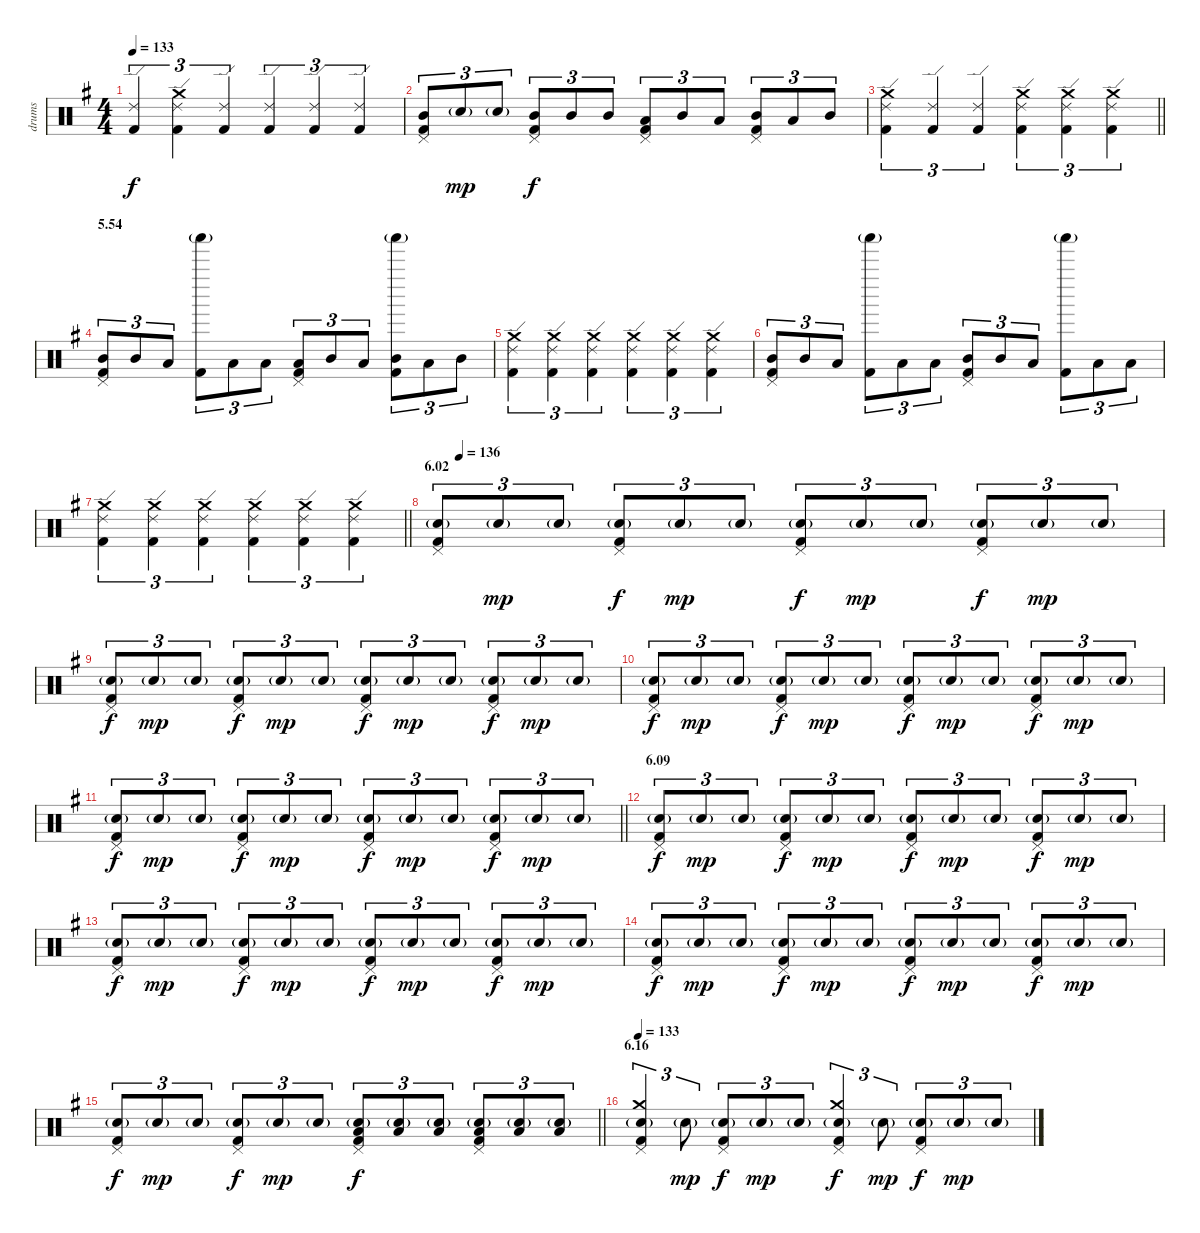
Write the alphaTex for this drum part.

\track ("drums" "drums") {instrument percussion}
\staff {score}
\articulation defaults
\ts (4 4)
\tempo 133
\clef neutral
\ks g
("Ride (edge) 2" "Kick (hit) 2").4{tu (3 2) dy f} ("Ride (edge) 2" "Crash medium (hit)" "Kick (hit) 2").4{tu (3 2)} ("Ride (edge) 2" "Kick (hit) 2").4{tu (3 2)} ("Ride (edge) 2" "Kick (hit) 2").4{tu (3 2)} ("Ride (edge) 2" "Kick (hit) 2").4{tu (3 2)} ("Ride (edge) 2" "Kick (hit) 2").4{tu (3 2)} |
("Pedal Hi-Hat (hit)" "Mid Tom (hit)" "Kick (hit) 2").8{tu (3 2)} "Electric Snare (hit)"{g}.8{tu (3 2) dy mp} "Electric Snare (hit)"{g}.8{tu (3 2)} ("Pedal Hi-Hat (hit)" "Mid Tom (hit)" "Kick (hit) 2").8{tu (3 2) dy f} "Mid Tom (hit)".8{tu (3 2)} "Mid Tom (hit)".8{tu (3 2)} ("Pedal Hi-Hat (hit)" "Low Tom (hit)" "Kick (hit) 2").8{tu (3 2)} "Mid Tom (hit)".8{tu (3 2)} "Low Tom (hit)".8{tu (3 2)} ("Pedal Hi-Hat (hit)" "Mid Tom (hit)" "Kick (hit) 2").8{tu (3 2)} "Low Tom (hit)".8{tu (3 2)} "Mid Tom (hit)".8{tu (3 2)} |
\barLineRight lightlight
("Ride (edge) 2" "Crash medium (hit)" "Kick (hit) 2").4{tu (3 2)} ("Ride (edge) 2" "Kick (hit) 2").4{tu (3 2)} ("Ride (edge) 2" "Kick (hit) 2").4{tu (3 2)} ("Ride (edge) 2" "Crash medium (hit)" "Kick (hit) 2").4{tu (3 2)} ("Ride (edge) 2" "Crash medium (hit)" "Kick (hit) 2").4{tu (3 2)} ("Ride (edge) 2" "Crash medium (hit)" "Kick (hit) 2").4{tu (3 2)} |
\section ("" "5.54")
("Pedal Hi-Hat (hit)" "Mid Tom (hit)" "Kick (hit) 2").8{tu (3 2)} "Mid Tom (hit)".8{tu (3 2)} "Low Tom (hit)".8{tu (3 2)} ("Shaker (hit)"{g} "Kick (hit) 2").8{tu (3 2)} "Low Tom (hit)".8{tu (3 2)} "Low Tom (hit)".8{tu (3 2)} ("Pedal Hi-Hat (hit)" "Low Tom (hit)" "Kick (hit) 2").8{tu (3 2)} "Mid Tom (hit)".8{tu (3 2)} "Low Tom (hit)".8{tu (3 2)} ("Shaker (hit)"{g} "Mid Tom (hit)" "Kick (hit) 2").8{tu (3 2)} "Low Tom (hit)".8{tu (3 2)} "Mid Tom (hit)".8{tu (3 2)} |
("Ride (edge) 2" "Crash medium (hit)" "Kick (hit) 2").4{tu (3 2)} ("Ride (edge) 2" "Crash medium (hit)" "Kick (hit) 2").4{tu (3 2)} ("Ride (edge) 2" "Crash medium (hit)" "Kick (hit) 2").4{tu (3 2)} ("Ride (edge) 2" "Crash medium (hit)" "Kick (hit) 2").4{tu (3 2)} ("Ride (edge) 2" "Crash medium (hit)" "Kick (hit) 2").4{tu (3 2)} ("Ride (edge) 2" "Crash medium (hit)" "Kick (hit) 2").4{tu (3 2)} |
("Pedal Hi-Hat (hit)" "Mid Tom (hit)" "Kick (hit) 2").8{tu (3 2)} "Mid Tom (hit)".8{tu (3 2)} "Low Tom (hit)".8{tu (3 2)} ("Shaker (hit)"{g} "Kick (hit) 2").8{tu (3 2)} "Low Tom (hit)".8{tu (3 2)} "Low Tom (hit)".8{tu (3 2)} ("Pedal Hi-Hat (hit)" "Mid Tom (hit)" "Kick (hit) 2").8{tu (3 2)} "Mid Tom (hit)".8{tu (3 2)} "Low Tom (hit)".8{tu (3 2)} ("Shaker (hit)"{g} "Kick (hit) 2").8{tu (3 2)} "Low Tom (hit)".8{tu (3 2)} "Low Tom (hit)".8{tu (3 2)} |
\barLineRight lightlight
("Ride (edge) 2" "Crash medium (hit)" "Kick (hit) 2").4{tu (3 2)} ("Ride (edge) 2" "Crash medium (hit)" "Kick (hit) 2").4{tu (3 2)} ("Ride (edge) 2" "Crash medium (hit)" "Kick (hit) 2").4{tu (3 2)} ("Ride (edge) 2" "Crash medium (hit)" "Kick (hit) 2").4{tu (3 2)} ("Ride (edge) 2" "Crash medium (hit)" "Kick (hit) 2").4{tu (3 2)} ("Ride (edge) 2" "Crash medium (hit)" "Kick (hit) 2").4{tu (3 2)} |
\section ("" "6.02")
\tempo (136 0.03125)
("Pedal Hi-Hat (hit)" "Electric Snare (hit)"{g} "Kick (hit) 2").8{tu (3 2)} "Electric Snare (hit)"{g}.8{tu (3 2) dy mp} "Electric Snare (hit)"{g}.8{tu (3 2)} ("Pedal Hi-Hat (hit)" "Electric Snare (hit)"{g} "Kick (hit) 2").8{tu (3 2) dy f} "Electric Snare (hit)"{g}.8{tu (3 2) dy mp} "Electric Snare (hit)"{g}.8{tu (3 2)} ("Pedal Hi-Hat (hit)" "Electric Snare (hit)"{g} "Kick (hit) 2").8{tu (3 2) dy f} "Electric Snare (hit)"{g}.8{tu (3 2) dy mp} "Electric Snare (hit)"{g}.8{tu (3 2)} ("Pedal Hi-Hat (hit)" "Electric Snare (hit)"{g} "Kick (hit) 2").8{tu (3 2) dy f} "Electric Snare (hit)"{g}.8{tu (3 2) dy mp} "Electric Snare (hit)"{g}.8{tu (3 2)} |
("Pedal Hi-Hat (hit)" "Electric Snare (hit)"{g} "Kick (hit) 2").8{tu (3 2) dy f} "Electric Snare (hit)"{g}.8{tu (3 2) dy mp} "Electric Snare (hit)"{g}.8{tu (3 2)} ("Pedal Hi-Hat (hit)" "Electric Snare (hit)"{g} "Kick (hit) 2").8{tu (3 2) dy f} "Electric Snare (hit)"{g}.8{tu (3 2) dy mp} "Electric Snare (hit)"{g}.8{tu (3 2)} ("Pedal Hi-Hat (hit)" "Electric Snare (hit)"{g} "Kick (hit) 2").8{tu (3 2) dy f} "Electric Snare (hit)"{g}.8{tu (3 2) dy mp} "Electric Snare (hit)"{g}.8{tu (3 2)} ("Pedal Hi-Hat (hit)" "Electric Snare (hit)"{g} "Kick (hit) 2").8{tu (3 2) dy f} "Electric Snare (hit)"{g}.8{tu (3 2) dy mp} "Electric Snare (hit)"{g}.8{tu (3 2)} |
("Pedal Hi-Hat (hit)" "Electric Snare (hit)"{g} "Kick (hit) 2").8{tu (3 2) dy f} "Electric Snare (hit)"{g}.8{tu (3 2) dy mp} "Electric Snare (hit)"{g}.8{tu (3 2)} ("Pedal Hi-Hat (hit)" "Electric Snare (hit)"{g} "Kick (hit) 2").8{tu (3 2) dy f} "Electric Snare (hit)"{g}.8{tu (3 2) dy mp} "Electric Snare (hit)"{g}.8{tu (3 2)} ("Pedal Hi-Hat (hit)" "Electric Snare (hit)"{g} "Kick (hit) 2").8{tu (3 2) dy f} "Electric Snare (hit)"{g}.8{tu (3 2) dy mp} "Electric Snare (hit)"{g}.8{tu (3 2)} ("Pedal Hi-Hat (hit)" "Electric Snare (hit)"{g} "Kick (hit) 2").8{tu (3 2) dy f} "Electric Snare (hit)"{g}.8{tu (3 2) dy mp} "Electric Snare (hit)"{g}.8{tu (3 2)} |
\barLineRight lightlight
("Pedal Hi-Hat (hit)" "Electric Snare (hit)"{g} "Kick (hit) 2").8{tu (3 2) dy f} "Electric Snare (hit)"{g}.8{tu (3 2) dy mp} "Electric Snare (hit)"{g}.8{tu (3 2)} ("Pedal Hi-Hat (hit)" "Electric Snare (hit)"{g} "Kick (hit) 2").8{tu (3 2) dy f} "Electric Snare (hit)"{g}.8{tu (3 2) dy mp} "Electric Snare (hit)"{g}.8{tu (3 2)} ("Pedal Hi-Hat (hit)" "Electric Snare (hit)"{g} "Kick (hit) 2").8{tu (3 2) dy f} "Electric Snare (hit)"{g}.8{tu (3 2) dy mp} "Electric Snare (hit)"{g}.8{tu (3 2)} ("Pedal Hi-Hat (hit)" "Electric Snare (hit)"{g} "Kick (hit) 2").8{tu (3 2) dy f} "Electric Snare (hit)"{g}.8{tu (3 2) dy mp} "Electric Snare (hit)"{g}.8{tu (3 2)} |
\section ("" "6.09")
("Pedal Hi-Hat (hit)" "Electric Snare (hit)"{g} "Kick (hit) 2").8{tu (3 2) dy f} "Electric Snare (hit)"{g}.8{tu (3 2) dy mp} "Electric Snare (hit)"{g}.8{tu (3 2)} ("Pedal Hi-Hat (hit)" "Electric Snare (hit)"{g} "Kick (hit) 2").8{tu (3 2) dy f} "Electric Snare (hit)"{g}.8{tu (3 2) dy mp} "Electric Snare (hit)"{g}.8{tu (3 2)} ("Pedal Hi-Hat (hit)" "Electric Snare (hit)"{g} "Kick (hit) 2").8{tu (3 2) dy f} "Electric Snare (hit)"{g}.8{tu (3 2) dy mp} "Electric Snare (hit)"{g}.8{tu (3 2)} ("Pedal Hi-Hat (hit)" "Electric Snare (hit)"{g} "Kick (hit) 2").8{tu (3 2) dy f} "Electric Snare (hit)"{g}.8{tu (3 2) dy mp} "Electric Snare (hit)"{g}.8{tu (3 2)} |
("Pedal Hi-Hat (hit)" "Electric Snare (hit)"{g} "Kick (hit) 2").8{tu (3 2) dy f} "Electric Snare (hit)"{g}.8{tu (3 2) dy mp} "Electric Snare (hit)"{g}.8{tu (3 2)} ("Pedal Hi-Hat (hit)" "Electric Snare (hit)"{g} "Kick (hit) 2").8{tu (3 2) dy f} "Electric Snare (hit)"{g}.8{tu (3 2) dy mp} "Electric Snare (hit)"{g}.8{tu (3 2)} ("Pedal Hi-Hat (hit)" "Electric Snare (hit)"{g} "Kick (hit) 2").8{tu (3 2) dy f} "Electric Snare (hit)"{g}.8{tu (3 2) dy mp} "Electric Snare (hit)"{g}.8{tu (3 2)} ("Pedal Hi-Hat (hit)" "Electric Snare (hit)"{g} "Kick (hit) 2").8{tu (3 2) dy f} "Electric Snare (hit)"{g}.8{tu (3 2) dy mp} "Electric Snare (hit)"{g}.8{tu (3 2)} |
("Pedal Hi-Hat (hit)" "Electric Snare (hit)"{g} "Kick (hit) 2").8{tu (3 2) dy f} "Electric Snare (hit)"{g}.8{tu (3 2) dy mp} "Electric Snare (hit)"{g}.8{tu (3 2)} ("Pedal Hi-Hat (hit)" "Electric Snare (hit)"{g} "Kick (hit) 2").8{tu (3 2) dy f} "Electric Snare (hit)"{g}.8{tu (3 2) dy mp} "Electric Snare (hit)"{g}.8{tu (3 2)} ("Pedal Hi-Hat (hit)" "Electric Snare (hit)"{g} "Kick (hit) 2").8{tu (3 2) dy f} "Electric Snare (hit)"{g}.8{tu (3 2) dy mp} "Electric Snare (hit)"{g}.8{tu (3 2)} ("Pedal Hi-Hat (hit)" "Electric Snare (hit)"{g} "Kick (hit) 2").8{tu (3 2) dy f} "Electric Snare (hit)"{g}.8{tu (3 2) dy mp} "Electric Snare (hit)"{g}.8{tu (3 2)} |
\barLineRight lightlight
("Pedal Hi-Hat (hit)" "Electric Snare (hit)"{g} "Kick (hit) 2").8{tu (3 2) dy f} "Electric Snare (hit)"{g}.8{tu (3 2) dy mp} "Electric Snare (hit)"{g}.8{tu (3 2)} ("Pedal Hi-Hat (hit)" "Electric Snare (hit)"{g} "Kick (hit) 2").8{tu (3 2) dy f} "Electric Snare (hit)"{g}.8{tu (3 2) dy mp} "Electric Snare (hit)"{g}.8{tu (3 2)} ("Pedal Hi-Hat (hit)" "Low Tom (hit)" "Electric Snare (hit)"{g} "Kick (hit) 2").8{tu (3 2) dy f} ("Low Tom (hit)" "Electric Snare (hit)"{g}).8{tu (3 2)} ("Low Tom (hit)" "Electric Snare (hit)"{g}).8{tu (3 2)} ("Pedal Hi-Hat (hit)" "Low Tom (hit)" "Electric Snare (hit)"{g} "Kick (hit) 2").8{tu (3 2)} ("Low Tom (hit)" "Electric Snare (hit)"{g}).8{tu (3 2)} ("Low Tom (hit)" "Electric Snare (hit)"{g}).8{tu (3 2)} |
\section ("" "6.16")
\tempo 133
("Pedal Hi-Hat (hit)" "Crash medium (hit)" "Electric Snare (hit)"{g} "Kick (hit) 2").4{tu (3 2)} "Electric Snare (hit)"{g}.8{tu (3 2) dy mp} ("Pedal Hi-Hat (hit)" "Electric Snare (hit)"{g} "Kick (hit) 2").8{tu (3 2) dy f} "Electric Snare (hit)"{g}.8{tu (3 2) dy mp} "Electric Snare (hit)"{g}.8{tu (3 2)} ("Pedal Hi-Hat (hit)" "Crash medium (hit)" "Electric Snare (hit)"{g} "Kick (hit) 2").4{tu (3 2) dy f} "Electric Snare (hit)"{g}.8{tu (3 2) dy mp} ("Pedal Hi-Hat (hit)" "Electric Snare (hit)"{g} "Kick (hit) 2").8{tu (3 2) dy f} "Electric Snare (hit)"{g}.8{tu (3 2) dy mp} "Electric Snare (hit)"{g}.8{tu (3 2)}
